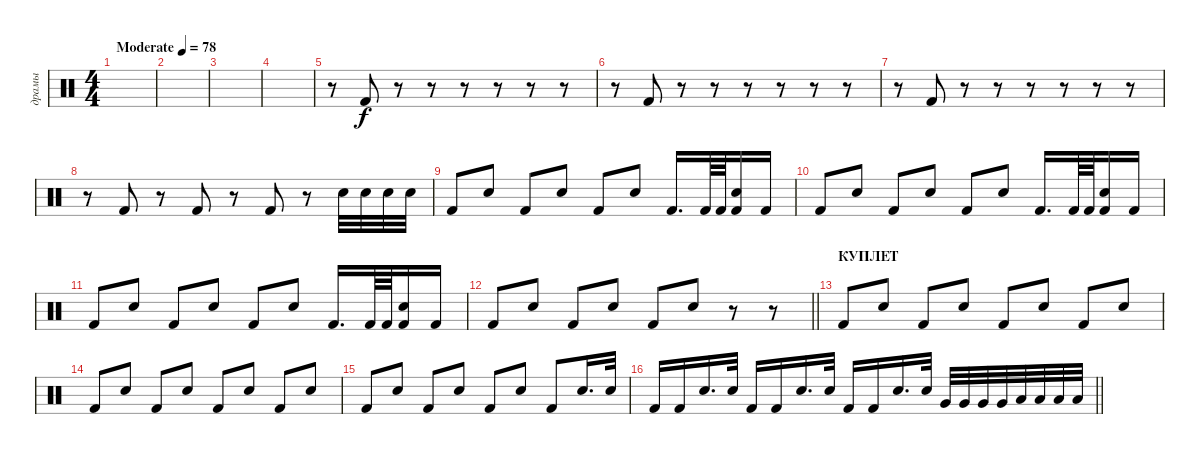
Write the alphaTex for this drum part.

\track ("драмы" "драмы") {instrument percussion}
\staff {score}
\articulation defaults
\ts (4 4)
\tempo (78 "Moderate")
\clef neutral
\ks c
|
|
|
|
r.8 "Kick (hit) 2".8 r.8 r.8 r.8 r.8 r.8 r.8 |
r.8 "Kick (hit) 2".8 r.8 r.8 r.8 r.8 r.8 r.8 |
r.8 "Kick (hit) 2".8 r.8 r.8 r.8 r.8 r.8 r.8 |
r.8 "Kick (hit) 2".8 r.8 "Kick (hit) 2".8 r.8 "Kick (hit) 2".8 r.8 "Electric Snare (hit)".32 "Electric Snare (hit)".32 "Electric Snare (hit)".32 "Electric Snare (hit)".32 |
"Kick (hit) 2".8 "Electric Snare (hit)".8 "Kick (hit) 2".8 "Electric Snare (hit)".8 "Kick (hit) 2".8 "Electric Snare (hit)".8 "Kick (hit) 2".16{d} "Kick (hit) 2".64 "Kick (hit) 2".64 ("Electric Snare (hit)" "Kick (hit) 2").16 "Kick (hit) 2".16 |
"Kick (hit) 2".8 "Electric Snare (hit)".8 "Kick (hit) 2".8 "Electric Snare (hit)".8 "Kick (hit) 2".8 "Electric Snare (hit)".8 "Kick (hit) 2".16{d} "Kick (hit) 2".64 "Kick (hit) 2".64 ("Electric Snare (hit)" "Kick (hit) 2").16 "Kick (hit) 2".16 |
"Kick (hit) 2".8 "Electric Snare (hit)".8 "Kick (hit) 2".8 "Electric Snare (hit)".8 "Kick (hit) 2".8 "Electric Snare (hit)".8 "Kick (hit) 2".16{d} "Kick (hit) 2".64 "Kick (hit) 2".64 ("Electric Snare (hit)" "Kick (hit) 2").16 "Kick (hit) 2".16 |
\barLineRight lightlight "Kick (hit) 2".8 "Electric Snare (hit)".8 "Kick (hit) 2".8 "Electric Snare (hit)".8 "Kick (hit) 2".8 "Electric Snare (hit)".8
r.8 r.8 |
\section ("" "КУПЛЕТ")
"Kick (hit) 2".8 "Electric Snare (hit)".8 "Kick (hit) 2".8 "Electric Snare (hit)".8 "Kick (hit) 2".8 "Electric Snare (hit)".8 "Kick (hit) 2".8 "Electric Snare (hit)".8 |
"Kick (hit) 2".8 "Electric Snare (hit)".8 "Kick (hit) 2".8 "Electric Snare (hit)".8 "Kick (hit) 2".8 "Electric Snare (hit)".8 "Kick (hit) 2".8 "Electric Snare (hit)".8 |
"Kick (hit) 2".8 "Electric Snare (hit)".8 "Kick (hit) 2".8 "Electric Snare (hit)".8 "Kick (hit) 2".8 "Electric Snare (hit)".8 "Kick (hit) 2".8 "Electric Snare (hit)".16{d} "Electric Snare (hit)".32 |
\barLineRight lightlight "Kick (hit) 2".16 "Kick (hit) 2".16 "Electric Snare (hit)".16{d} "Electric Snare (hit)".32 "Kick (hit) 2".16 "Kick (hit) 2".16 "Electric Snare (hit)".16{d} "Electric Snare (hit)".32 "Kick (hit) 2".16 "Kick (hit) 2".16 "Electric Snare (hit)".16{d} "Electric Snare (hit)".32 "Very Low Tom (hit)".32 "Very Low Tom (hit)".32 "Very Low Tom (hit)".32 "Very Low Tom (hit)".32 "Low Tom (hit)".32 "Low Tom (hit)".32 "Low Tom (hit)".32 "Low Tom (hit)".32
